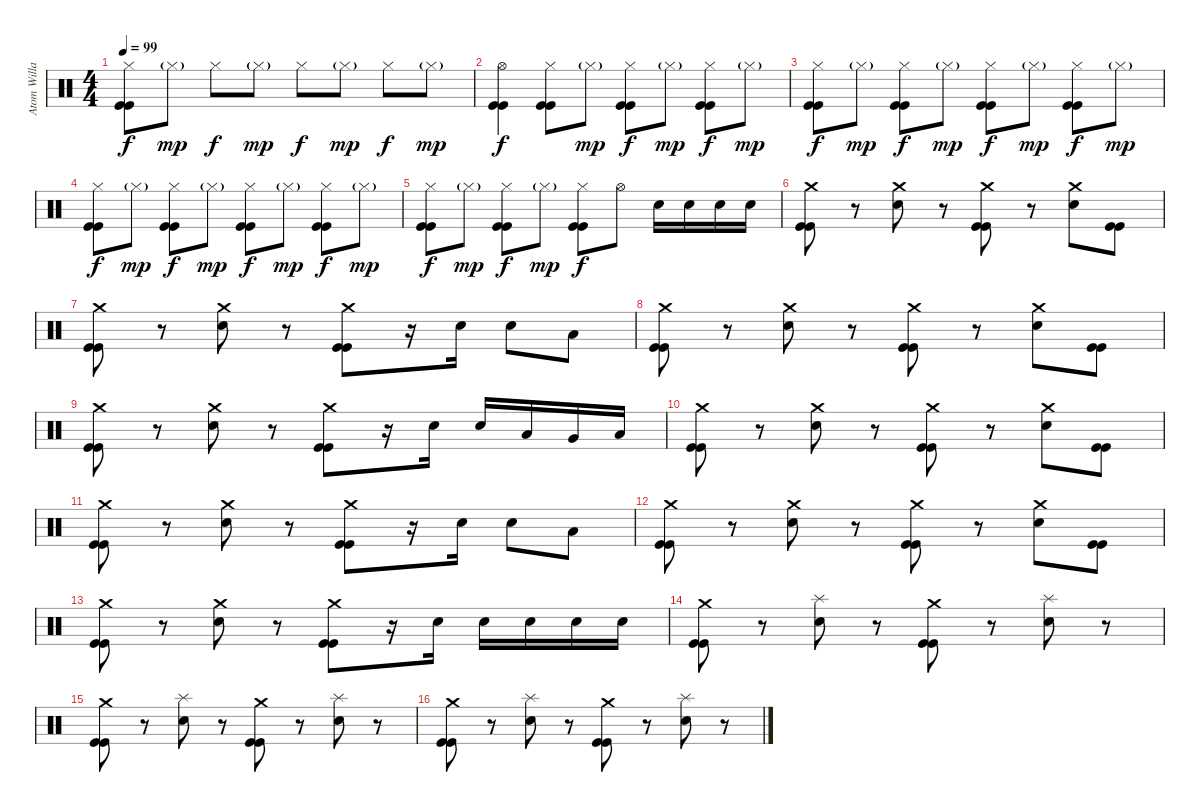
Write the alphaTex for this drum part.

\track ("Atom Willard" "Atom Willa") {instrument percussion}
\staff {score}
\articulation defaults
\ts (4 4)
\tempo 99
\clef neutral
\ks c
("Hi-Hat (closed)" "Kick (hit)" "Kick (hit)").8{dy f} "Hi-Hat (closed)"{g}.8{dy mp} "Hi-Hat (closed)".8{dy f} "Hi-Hat (closed)"{g}.8{dy mp} "Hi-Hat (closed)".8{dy f} "Hi-Hat (closed)"{g}.8{dy mp} "Hi-Hat (closed)".8{dy f} "Hi-Hat (closed)"{g}.8{dy mp} |
("Hi-Hat (open)" "Kick (hit)" "Kick (hit)").4{dy f} ("Hi-Hat (closed)" "Kick (hit)" "Kick (hit)").8 "Hi-Hat (closed)"{g}.8{dy mp} ("Hi-Hat (closed)" "Kick (hit)" "Kick (hit)").8{dy f} "Hi-Hat (closed)"{g}.8{dy mp} ("Hi-Hat (closed)" "Kick (hit)" "Kick (hit)").8{dy f} "Hi-Hat (closed)"{g}.8{dy mp} |
("Hi-Hat (closed)" "Kick (hit)" "Kick (hit)").8{dy f} "Hi-Hat (closed)"{g}.8{dy mp} ("Hi-Hat (closed)" "Kick (hit)" "Kick (hit)").8{dy f} "Hi-Hat (closed)"{g}.8{dy mp} ("Hi-Hat (closed)" "Kick (hit)" "Kick (hit)").8{dy f} "Hi-Hat (closed)"{g}.8{dy mp} ("Hi-Hat (closed)" "Kick (hit)" "Kick (hit)").8{dy f} "Hi-Hat (closed)"{g}.8{dy mp} |
("Hi-Hat (closed)" "Kick (hit)" "Kick (hit)").8{dy f} "Hi-Hat (closed)"{g}.8{dy mp} ("Hi-Hat (closed)" "Kick (hit)" "Kick (hit)").8{dy f} "Hi-Hat (closed)"{g}.8{dy mp} ("Hi-Hat (closed)" "Kick (hit)" "Kick (hit)").8{dy f} "Hi-Hat (closed)"{g}.8{dy mp} ("Hi-Hat (closed)" "Kick (hit)" "Kick (hit)").8{dy f} "Hi-Hat (closed)"{g}.8{dy mp} |
("Hi-Hat (closed)" "Kick (hit)" "Kick (hit)").8{dy f} "Hi-Hat (closed)"{g}.8{dy mp} ("Hi-Hat (closed)" "Kick (hit)" "Kick (hit)").8{dy f} "Hi-Hat (closed)"{g}.8{dy mp} ("Hi-Hat (closed)" "Kick (hit)" "Kick (hit)").8{dy f} "Hi-Hat (open)".8 "Electric Snare (hit)".16 "Electric Snare (hit)".16 "Electric Snare (hit)".16 "Electric Snare (hit)".16 |
("Crash medium (hit)" "Kick (hit)" "Kick (hit)").8 r.8 ("Crash medium (hit)" "Electric Snare (hit)").8 r.8 ("Crash medium (hit)" "Kick (hit)" "Kick (hit)").8 r.8 ("Crash medium (hit)" "Electric Snare (hit)").8 ("Kick (hit)" "Kick (hit)").8 |
("Crash medium (hit)" "Kick (hit)" "Kick (hit)").8 r.8 ("Crash medium (hit)" "Electric Snare (hit)").8 r.8 ("Crash medium (hit)" "Kick (hit)" "Kick (hit)").8 r.16 "Electric Snare (hit)".16 "Electric Snare (hit)".8 "Low Tom (hit)".8 |
("Crash medium (hit)" "Kick (hit)" "Kick (hit)").8 r.8 ("Crash medium (hit)" "Electric Snare (hit)").8 r.8 ("Crash medium (hit)" "Kick (hit)" "Kick (hit)").8 r.8 ("Crash medium (hit)" "Electric Snare (hit)").8 ("Kick (hit)" "Kick (hit)").8 |
("Crash medium (hit)" "Kick (hit)" "Kick (hit)").8 r.8 ("Crash medium (hit)" "Electric Snare (hit)").8 r.8 ("Crash medium (hit)" "Kick (hit)" "Kick (hit)").8 r.16 "Electric Snare (hit)".16 "Electric Snare (hit)".16 "Low Tom (hit)".16 "Very Low Tom (hit)".16 "Low Floor Tom (hit)".16 |
("Crash medium (hit)" "Kick (hit)" "Kick (hit)").8 r.8 ("Crash medium (hit)" "Electric Snare (hit)").8 r.8 ("Crash medium (hit)" "Kick (hit)" "Kick (hit)").8 r.8 ("Crash medium (hit)" "Electric Snare (hit)").8 ("Kick (hit)" "Kick (hit)").8 |
("Crash medium (hit)" "Kick (hit)" "Kick (hit)").8 r.8 ("Crash medium (hit)" "Electric Snare (hit)").8 r.8 ("Crash medium (hit)" "Kick (hit)" "Kick (hit)").8 r.16 "Electric Snare (hit)".16 "Electric Snare (hit)".8 "Low Tom (hit)".8 |
("Crash medium (hit)" "Kick (hit)" "Kick (hit)").8 r.8 ("Crash medium (hit)" "Electric Snare (hit)").8 r.8 ("Crash medium (hit)" "Kick (hit)" "Kick (hit)").8 r.8 ("Crash medium (hit)" "Electric Snare (hit)").8 ("Kick (hit)" "Kick (hit)").8 |
("Crash medium (hit)" "Kick (hit)" "Kick (hit)").8 r.8 ("Crash medium (hit)" "Electric Snare (hit)").8 r.8 ("Crash medium (hit)" "Kick (hit)" "Kick (hit)").8 r.16 "Electric Snare (hit)".16 "Electric Snare (hit)".16 "Electric Snare (hit)".16 "Electric Snare (hit)".16 "Electric Snare (hit)".16 |
("Crash medium (hit)" "Kick (hit)" "Kick (hit)").8 r.8 ("Splash (hit)" "Electric Snare (hit)").8 r.8 ("Crash medium (hit)" "Kick (hit)" "Kick (hit)").8 r.8 ("Splash (hit)" "Electric Snare (hit)").8 r.8 |
("Crash medium (hit)" "Kick (hit)" "Kick (hit)").8 r.8 ("Splash (hit)" "Electric Snare (hit)").8 r.8 ("Crash medium (hit)" "Kick (hit)" "Kick (hit)").8 r.8 ("Splash (hit)" "Electric Snare (hit)").8 r.8 |
("Crash medium (hit)" "Kick (hit)" "Kick (hit)").8 r.8 ("Splash (hit)" "Electric Snare (hit)").8 r.8 ("Crash medium (hit)" "Kick (hit)" "Kick (hit)").8 r.8 ("Splash (hit)" "Electric Snare (hit)").8 r.8
